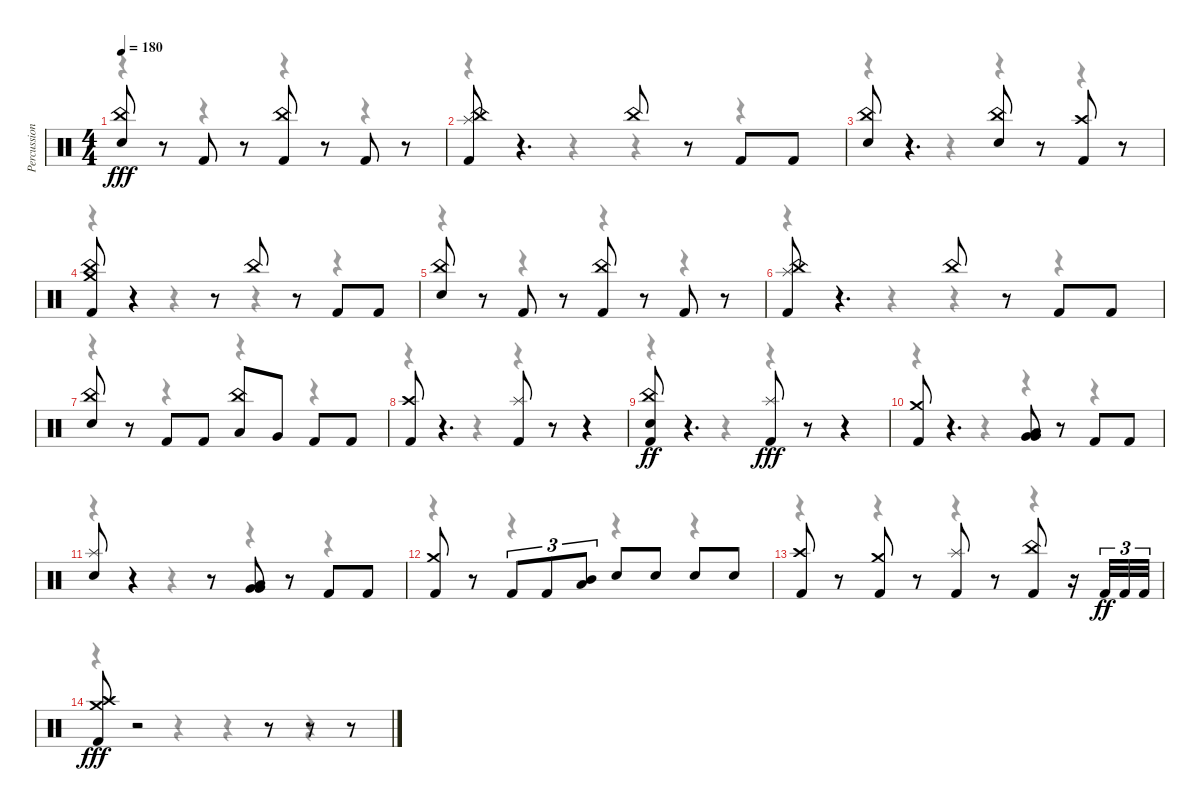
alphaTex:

\track ("Percussion" "Percussion") {instrument percussion}
\staff {score}
\articulation defaults
\voice
\ts (4 4)
\tempo 180
\clef neutral
\ks c
("Snare (hit) 2" "China (hit)").8{dy fff} r.8 "Kick (hit) 2".8 r.8 ("Kick (hit) 2" "China (hit)").8 r.8 "Kick (hit) 2".8 r.8 |
("Kick (hit) 2" "China (hit)" "Splash (hit)").8 r.4{d} "China (hit)".8 r.8 "Kick (hit) 2".8 "Kick (hit) 2".8 |
("Snare (hit) 2" "China (hit)").8 r.4{d} ("Snare (hit) 2" "China (hit)").8 r.8 ("Kick (hit) 2" "Crash high (hit)").8 r.8 |
("China (hit)" "Crash medium (hit)" "Kick (hit) 2").8 r.4 r.8 "China (hit)".8 r.8 "Kick (hit) 2".8 "Kick (hit) 2".8 |
("Snare (hit) 2" "China (hit)").8 r.8 "Kick (hit) 2".8 r.8 ("Kick (hit) 2" "China (hit)").8 r.8 "Kick (hit) 2".8 r.8 |
("Kick (hit) 2" "China (hit)" "Splash (hit)").8 r.4{d} "China (hit)".8 r.8 "Kick (hit) 2".8 "Kick (hit) 2".8 |
("Snare (hit) 2" "China (hit)").8 r.8 "Kick (hit) 2".8 "Kick (hit) 2".8 ("Low Floor Tom (hit)" "China (hit)").8 "Very Low Tom (hit)".8 "Kick (hit) 2".8 "Kick (hit) 2".8 |
("Kick (hit) 2" "Crash high (hit)").8 r.4{d} ("Kick (hit) 2" "Splash (hit)").8 r.8 r.4 |
("Kick (hit) 2" "Snare (hit) 2" "China (hit)").8{dy ff} r.4{d} ("Kick (hit) 2" "Splash (hit)").8{dy fff} r.8 r.4 |
("Kick (hit) 2" "Crash medium (hit)").8 r.4{d} ("Very Low Tom (hit)" "Very Low Tom (hit)" "Low Floor Tom (hit)").8 r.8 "Kick (hit) 2".8 "Kick (hit) 2".8 |
("Snare (hit) 2" "Splash (hit)").8 r.4 r.8 ("Very Low Tom (hit)" "Very Low Tom (hit)" "Low Floor Tom (hit)").8 r.8 "Kick (hit) 2".8 "Kick (hit) 2".8 |
("Kick (hit) 2" "Crash medium (hit)").8 r.8 "Kick (hit) 2".8{tu (3 2)} "Kick (hit) 2".8{tu (3 2)} ("Low Tom (hit)" "Mid Tom (hit)").8{tu (3 2)} "Snare (hit) 2".8 "Snare (hit) 2".8 "Snare (hit) 2".8 "Snare (hit) 2".8 |
("Kick (hit) 2" "Crash high (hit)").8 r.8 ("Kick (hit) 2" "Crash medium (hit)").8 r.8 ("Kick (hit) 2" "Splash (hit)").8 r.8 ("Kick (hit) 2" "China (hit)").8 r.16 "Kick (hit) 2".32{tu (3 2) dy ff} "Kick (hit) 2".32{tu (3 2)} "Kick (hit) 2".32{tu (3 2)} |
("Kick (hit) 2" "Crash high (hit)" "Crash medium (hit)").8{dy fff} r.2 r.8 r.8 r.8
\voice
\clef neutral
\ottava regular
\simile none
\ks c
r.4{dy f} r.4 r.4 r.4 |
r.4 r.4 r.4 r.4 |
r.4 r.4 r.4 r.4 |
r.4 r.4 r.4 r.4 |
r.4 r.4 r.4 r.4 |
r.4 r.4 r.4 r.4 |
r.4 r.4 r.4 r.4 |
r.4 r.4 r.4 r.4 |
r.4 r.4 r.4 r.4 |
r.4 r.4 r.4 r.4 |
r.4 r.4 r.4 r.4 |
r.4 r.4 r.4 r.4 |
r.4 r.4 r.4 r.4 |
r.4 r.4 r.4 r.4
